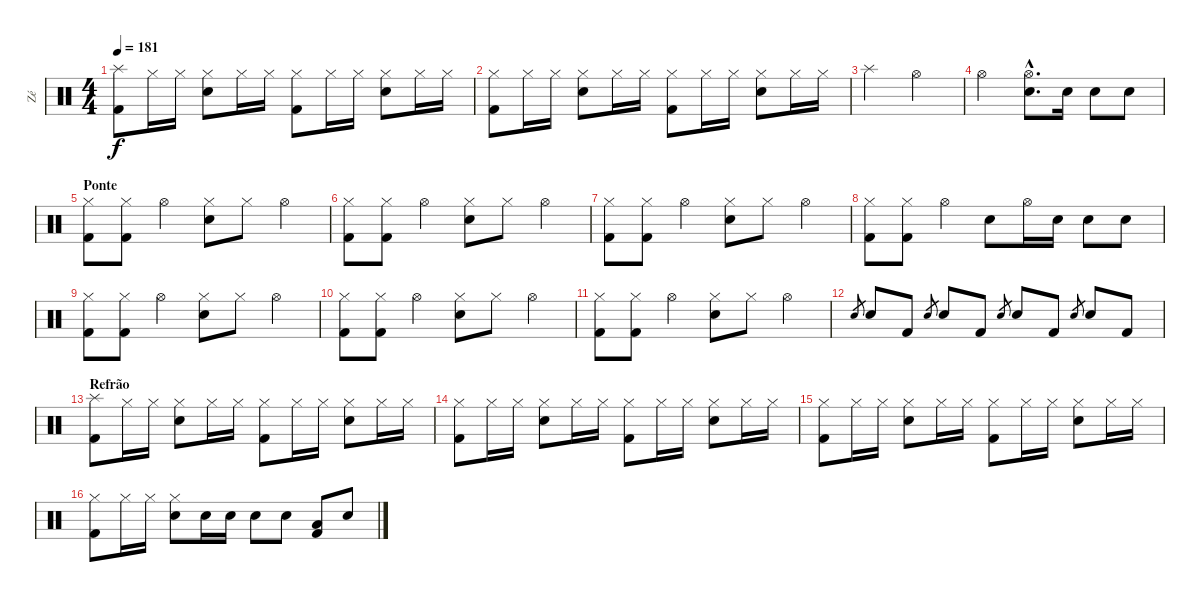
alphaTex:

\track ("Zé" "Zé") {instrument percussion}
\staff {score}
\articulation defaults
\ts (4 4)
\tempo 181
\clef neutral
\ks c
("Splash (hit)" "Kick (hit) 2").8{dy f} "Hi-Hat (closed)".16 "Hi-Hat (closed)".16 ("Hi-Hat (closed)" "Snare (hit) 2").8 "Hi-Hat (closed)".16 "Hi-Hat (closed)".16 ("Hi-Hat (closed)" "Kick (hit) 2").8 "Hi-Hat (closed)".16 "Hi-Hat (closed)".16 ("Hi-Hat (closed)" "Snare (hit) 2").8 "Hi-Hat (closed)".16 "Hi-Hat (closed)".16 |
("Hi-Hat (closed)" "Kick (hit) 2").8 "Hi-Hat (closed)".16 "Hi-Hat (closed)".16 ("Hi-Hat (closed)" "Snare (hit) 2").8 "Hi-Hat (closed)".16 "Hi-Hat (closed)".16 ("Hi-Hat (closed)" "Kick (hit) 2").8 "Hi-Hat (closed)".16 "Hi-Hat (closed)".16 ("Hi-Hat (closed)" "Snare (hit) 2").8 "Hi-Hat (closed)".16 "Hi-Hat (closed)".16 |
"Splash (hit)".2 "Hi-Hat (open)".2 |
"Hi-Hat (open)".2 ("Hi-Hat (open)"{hac} "Snare (hit) 2"{hac}).8{d} "Snare (hit) 2".16 "Snare (hit) 2".8 "Snare (hit) 2".8 |
\section ("" "Ponte")
("Hi-Hat (closed)" "Kick (hit) 2").8 ("Hi-Hat (closed)" "Kick (hit) 2").8 "Hi-Hat (open)".4 ("Hi-Hat (closed)" "Snare (hit) 2").8 "Hi-Hat (closed)".8 "Hi-Hat (open)".4 |
("Hi-Hat (closed)" "Kick (hit) 2").8 ("Hi-Hat (closed)" "Kick (hit) 2").8 "Hi-Hat (open)".4 ("Hi-Hat (closed)" "Snare (hit) 2").8 "Hi-Hat (closed)".8 "Hi-Hat (open)".4 |
("Hi-Hat (closed)" "Kick (hit) 2").8 ("Hi-Hat (closed)" "Kick (hit) 2").8 "Hi-Hat (open)".4 ("Hi-Hat (closed)" "Snare (hit) 2").8 "Hi-Hat (closed)".8 "Hi-Hat (open)".4 |
("Hi-Hat (closed)" "Kick (hit) 2").8 ("Hi-Hat (closed)" "Kick (hit) 2").8 "Hi-Hat (open)".4 "Snare (hit) 2".8 "Hi-Hat (open)".16 "Snare (hit) 2".16 "Snare (hit) 2".8 "Snare (hit) 2".8 |
("Hi-Hat (closed)" "Kick (hit) 2").8 ("Hi-Hat (closed)" "Kick (hit) 2").8 "Hi-Hat (open)".4 ("Hi-Hat (closed)" "Snare (hit) 2").8 "Hi-Hat (closed)".8 "Hi-Hat (open)".4 |
("Hi-Hat (closed)" "Kick (hit) 2").8 ("Hi-Hat (closed)" "Kick (hit) 2").8 "Hi-Hat (open)".4 ("Hi-Hat (closed)" "Snare (hit) 2").8 "Hi-Hat (closed)".8 "Hi-Hat (open)".4 |
("Hi-Hat (closed)" "Kick (hit) 2").8 ("Hi-Hat (closed)" "Kick (hit) 2").8 "Hi-Hat (open)".4 ("Hi-Hat (closed)" "Snare (hit) 2").8 "Hi-Hat (closed)".8 "Hi-Hat (open)".4 |
"Snare (hit) 2".8{gr} "Snare (hit) 2".8 "Kick (hit) 2".8 "Snare (hit) 2".8{gr} "Snare (hit) 2".8 "Kick (hit) 2".8 "Snare (hit) 2".8{gr} "Snare (hit) 2".8 "Kick (hit) 2".8 "Snare (hit) 2".8{gr} "Snare (hit) 2".8 "Kick (hit) 2".8 |
\section ("" "Refrão")
("Splash (hit)" "Kick (hit) 2").8 "Hi-Hat (closed)".16 "Hi-Hat (closed)".16 ("Hi-Hat (closed)" "Snare (hit) 2").8 "Hi-Hat (closed)".16 "Hi-Hat (closed)".16 ("Hi-Hat (closed)" "Kick (hit) 2").8 "Hi-Hat (closed)".16 "Hi-Hat (closed)".16 ("Hi-Hat (closed)" "Snare (hit) 2").8 "Hi-Hat (closed)".16 "Hi-Hat (closed)".16 |
("Hi-Hat (closed)" "Kick (hit) 2").8 "Hi-Hat (closed)".16 "Hi-Hat (closed)".16 ("Hi-Hat (closed)" "Snare (hit) 2").8 "Hi-Hat (closed)".16 "Hi-Hat (closed)".16 ("Hi-Hat (closed)" "Kick (hit) 2").8 "Hi-Hat (closed)".16 "Hi-Hat (closed)".16 ("Hi-Hat (closed)" "Snare (hit) 2").8 "Hi-Hat (closed)".16 "Hi-Hat (closed)".16 |
("Hi-Hat (closed)" "Kick (hit) 2").8 "Hi-Hat (closed)".16 "Hi-Hat (closed)".16 ("Hi-Hat (closed)" "Snare (hit) 2").8 "Hi-Hat (closed)".16 "Hi-Hat (closed)".16 ("Hi-Hat (closed)" "Kick (hit) 2").8 "Hi-Hat (closed)".16 "Hi-Hat (closed)".16 ("Hi-Hat (closed)" "Snare (hit) 2").8 "Hi-Hat (closed)".16 "Hi-Hat (closed)".16 |
("Hi-Hat (closed)" "Kick (hit) 2").8 "Hi-Hat (closed)".16 "Hi-Hat (closed)".16 ("Hi-Hat (closed)" "Snare (hit) 2").8 "Snare (hit) 2".16 "Snare (hit) 2".16 "Snare (hit) 2".8 "Snare (hit) 2".8 ("Low Tom (hit)" "Kick (hit) 2").8 "Snare (hit) 2".8
